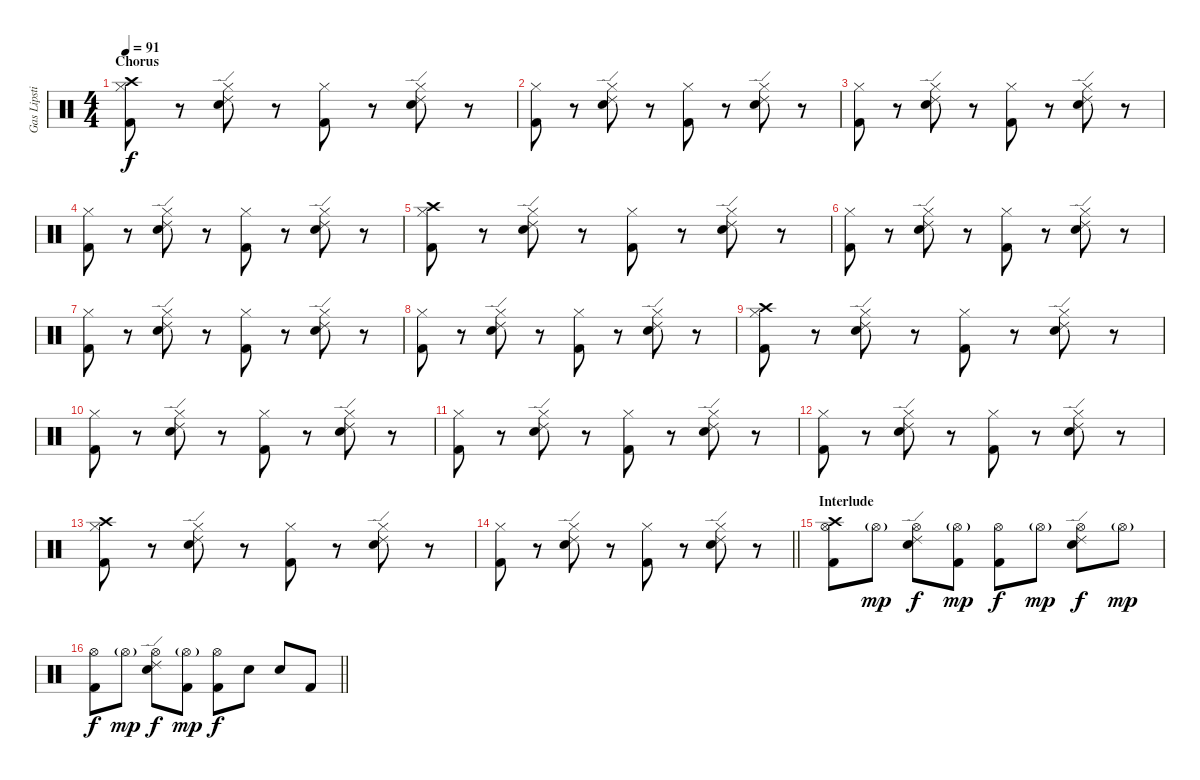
\track ("Gas Lipstick (Drums)" "Gas Lipsti") {instrument percussion}
\staff {score}
\articulation defaults
\ts (4 4)
\section ("" "Chorus")
\tempo 91
\clef neutral
\ks c
("Crash high (hit)" "Hi-Hat (closed)" "Kick (hit) 2").8{dy f} r.8 ("Ride (edge) 2" "Hi-Hat (closed)" "Snare (hit) 2").8 r.8 ("Hi-Hat (closed)" "Kick (hit) 2").8 r.8 ("Ride (edge) 2" "Hi-Hat (closed)" "Snare (hit) 2").8 r.8 |
("Hi-Hat (closed)" "Kick (hit) 2").8 r.8 ("Ride (edge) 2" "Hi-Hat (closed)" "Snare (hit) 2").8 r.8 ("Hi-Hat (closed)" "Kick (hit) 2").8 r.8 ("Ride (edge) 2" "Hi-Hat (closed)" "Snare (hit) 2").8 r.8 |
("Hi-Hat (closed)" "Kick (hit) 2").8 r.8 ("Ride (edge) 2" "Hi-Hat (closed)" "Snare (hit) 2").8 r.8 ("Hi-Hat (closed)" "Kick (hit) 2").8 r.8 ("Ride (edge) 2" "Hi-Hat (closed)" "Snare (hit) 2").8 r.8 |
("Hi-Hat (closed)" "Kick (hit) 2").8 r.8 ("Ride (edge) 2" "Hi-Hat (closed)" "Snare (hit) 2").8 r.8 ("Hi-Hat (closed)" "Kick (hit) 2").8 r.8 ("Ride (edge) 2" "Hi-Hat (closed)" "Snare (hit) 2").8 r.8 |
("Crash high (hit)" "Hi-Hat (closed)" "Kick (hit) 2").8 r.8 ("Ride (edge) 2" "Hi-Hat (closed)" "Snare (hit) 2").8 r.8 ("Hi-Hat (closed)" "Kick (hit) 2").8 r.8 ("Ride (edge) 2" "Hi-Hat (closed)" "Snare (hit) 2").8 r.8 |
("Hi-Hat (closed)" "Kick (hit) 2").8 r.8 ("Ride (edge) 2" "Hi-Hat (closed)" "Snare (hit) 2").8 r.8 ("Hi-Hat (closed)" "Kick (hit) 2").8 r.8 ("Ride (edge) 2" "Hi-Hat (closed)" "Snare (hit) 2").8 r.8 |
("Hi-Hat (closed)" "Kick (hit) 2").8 r.8 ("Ride (edge) 2" "Hi-Hat (closed)" "Snare (hit) 2").8 r.8 ("Hi-Hat (closed)" "Kick (hit) 2").8 r.8 ("Ride (edge) 2" "Hi-Hat (closed)" "Snare (hit) 2").8 r.8 |
("Hi-Hat (closed)" "Kick (hit) 2").8 r.8 ("Ride (edge) 2" "Hi-Hat (closed)" "Snare (hit) 2").8 r.8 ("Hi-Hat (closed)" "Kick (hit) 2").8 r.8 ("Ride (edge) 2" "Hi-Hat (closed)" "Snare (hit) 2").8 r.8 |
("Crash high (hit)" "Hi-Hat (closed)" "Kick (hit) 2").8 r.8 ("Ride (edge) 2" "Hi-Hat (closed)" "Snare (hit) 2").8 r.8 ("Hi-Hat (closed)" "Kick (hit) 2").8 r.8 ("Ride (edge) 2" "Hi-Hat (closed)" "Snare (hit) 2").8 r.8 |
("Hi-Hat (closed)" "Kick (hit) 2").8 r.8 ("Ride (edge) 2" "Hi-Hat (closed)" "Snare (hit) 2").8 r.8 ("Hi-Hat (closed)" "Kick (hit) 2").8 r.8 ("Ride (edge) 2" "Hi-Hat (closed)" "Snare (hit) 2").8 r.8 |
("Hi-Hat (closed)" "Kick (hit) 2").8 r.8 ("Ride (edge) 2" "Hi-Hat (closed)" "Snare (hit) 2").8 r.8 ("Hi-Hat (closed)" "Kick (hit) 2").8 r.8 ("Ride (edge) 2" "Hi-Hat (closed)" "Snare (hit) 2").8 r.8 |
("Hi-Hat (closed)" "Kick (hit) 2").8 r.8 ("Ride (edge) 2" "Hi-Hat (closed)" "Snare (hit) 2").8 r.8 ("Hi-Hat (closed)" "Kick (hit) 2").8 r.8 ("Ride (edge) 2" "Hi-Hat (closed)" "Snare (hit) 2").8 r.8 |
("Crash high (hit)" "Hi-Hat (closed)" "Kick (hit) 2").8 r.8 ("Ride (edge) 2" "Hi-Hat (closed)" "Snare (hit) 2").8 r.8 ("Hi-Hat (closed)" "Kick (hit) 2").8 r.8 ("Ride (edge) 2" "Hi-Hat (closed)" "Snare (hit) 2").8 r.8 |
\barLineRight lightlight
("Hi-Hat (closed)" "Kick (hit) 2").8 r.8 ("Ride (edge) 2" "Hi-Hat (closed)" "Snare (hit) 2").8 r.8 ("Hi-Hat (closed)" "Kick (hit) 2").8 r.8 ("Ride (edge) 2" "Hi-Hat (closed)" "Snare (hit) 2").8 r.8 |
\section ("" "Interlude")
("Crash high (hit)" "Hi-Hat (open)" "Kick (hit) 2").8 "Hi-Hat (open)"{g}.8{dy mp} ("Ride (edge) 2" "Hi-Hat (open)" "Snare (hit) 2").8{dy f} ("Hi-Hat (open)"{g} "Kick (hit) 2").8{dy mp} ("Hi-Hat (open)" "Kick (hit) 2").8{dy f} "Hi-Hat (open)"{g}.8{dy mp} ("Ride (edge) 2" "Hi-Hat (open)" "Snare (hit) 2").8{dy f} "Hi-Hat (open)"{g}.8{dy mp} |
\barLineRight lightlight
("Hi-Hat (open)" "Kick (hit) 2").8{dy f} "Hi-Hat (open)"{g}.8{dy mp} ("Ride (edge) 2" "Hi-Hat (open)" "Snare (hit) 2").8{dy f} ("Hi-Hat (open)"{g} "Kick (hit) 2").8{dy mp} ("Hi-Hat (open)" "Kick (hit) 2").8{dy f} "Snare (hit) 2".8 "Snare (hit) 2".8 "Kick (hit) 2".8
